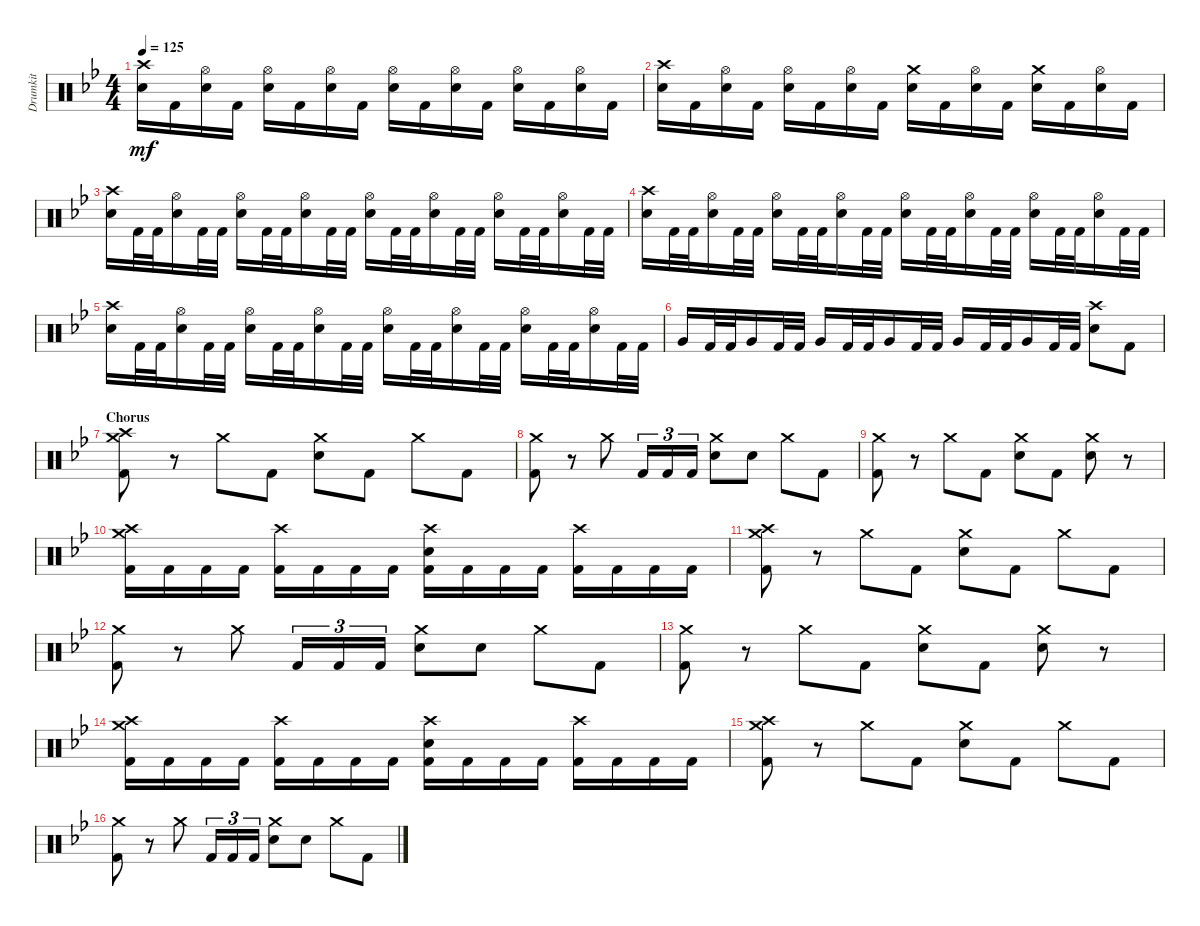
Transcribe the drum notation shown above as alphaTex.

\track ("Drumkit" "Drumkit") {instrument percussion}
\staff {score}
\articulation defaults
\ts (4 4)
\tempo 125
\clef neutral
\ks bb
("Crash high (hit)" "Snare (hit) 2").16{dy mf} "Kick (hit) 2".16 ("Hi-Hat (open)" "Snare (hit) 2").16 "Kick (hit) 2".16 ("Hi-Hat (open)" "Snare (hit) 2").16 "Kick (hit) 2".16 ("Hi-Hat (open)" "Snare (hit) 2").16 "Kick (hit) 2".16 ("Hi-Hat (open)" "Snare (hit) 2").16 "Kick (hit) 2".16 ("Hi-Hat (open)" "Snare (hit) 2").16 "Kick (hit) 2".16 ("Hi-Hat (open)" "Snare (hit) 2").16 "Kick (hit) 2".16 ("Hi-Hat (open)" "Snare (hit) 2").16 "Kick (hit) 2".16 |
("Crash high (hit)" "Snare (hit) 2").16 "Kick (hit) 2".16 ("Hi-Hat (open)" "Snare (hit) 2").16 "Kick (hit) 2".16 ("Hi-Hat (open)" "Snare (hit) 2").16 "Kick (hit) 2".16 ("Hi-Hat (open)" "Snare (hit) 2").16 "Kick (hit) 2".16 ("Crash medium (hit)" "Snare (hit) 2").16 "Kick (hit) 2".16 ("Hi-Hat (open)" "Snare (hit) 2").16 "Kick (hit) 2".16 ("Crash medium (hit)" "Snare (hit) 2").16 "Kick (hit) 2".16 ("Hi-Hat (open)" "Snare (hit) 2").16 "Kick (hit) 2".16 |
("Crash high (hit)" "Snare (hit) 2").16 "Kick (hit) 2".32 "Kick (hit) 2".32 ("Hi-Hat (open)" "Snare (hit) 2").16 "Kick (hit) 2".32 "Kick (hit) 2".32 ("Hi-Hat (open)" "Snare (hit) 2").16 "Kick (hit) 2".32 "Kick (hit) 2".32 ("Hi-Hat (open)" "Snare (hit) 2").16 "Kick (hit) 2".32 "Kick (hit) 2".32 ("Hi-Hat (open)" "Snare (hit) 2").16 "Kick (hit) 2".32 "Kick (hit) 2".32 ("Hi-Hat (open)" "Snare (hit) 2").16 "Kick (hit) 2".32 "Kick (hit) 2".32 ("Hi-Hat (open)" "Snare (hit) 2").16 "Kick (hit) 2".32 "Kick (hit) 2".32 ("Hi-Hat (open)" "Snare (hit) 2").16 "Kick (hit) 2".32 "Kick (hit) 2".32 |
("Crash high (hit)" "Snare (hit) 2").16 "Kick (hit) 2".32 "Kick (hit) 2".32 ("Hi-Hat (open)" "Snare (hit) 2").16 "Kick (hit) 2".32 "Kick (hit) 2".32 ("Hi-Hat (open)" "Snare (hit) 2").16 "Kick (hit) 2".32 "Kick (hit) 2".32 ("Hi-Hat (open)" "Snare (hit) 2").16 "Kick (hit) 2".32 "Kick (hit) 2".32 ("Hi-Hat (open)" "Snare (hit) 2").16 "Kick (hit) 2".32 "Kick (hit) 2".32 ("Hi-Hat (open)" "Snare (hit) 2").16 "Kick (hit) 2".32 "Kick (hit) 2".32 ("Hi-Hat (open)" "Snare (hit) 2").16 "Kick (hit) 2".32 "Kick (hit) 2".32 ("Hi-Hat (open)" "Snare (hit) 2").16 "Kick (hit) 2".32 "Kick (hit) 2".32 |
("Crash high (hit)" "Snare (hit) 2").16 "Kick (hit) 2".32 "Kick (hit) 2".32 ("Hi-Hat (open)" "Snare (hit) 2").16 "Kick (hit) 2".32 "Kick (hit) 2".32 ("Hi-Hat (open)" "Snare (hit) 2").16 "Kick (hit) 2".32 "Kick (hit) 2".32 ("Hi-Hat (open)" "Snare (hit) 2").16 "Kick (hit) 2".32 "Kick (hit) 2".32 ("Hi-Hat (open)" "Snare (hit) 2").16 "Kick (hit) 2".32 "Kick (hit) 2".32 ("Hi-Hat (open)" "Snare (hit) 2").16 "Kick (hit) 2".32 "Kick (hit) 2".32 ("Hi-Hat (open)" "Snare (hit) 2").16 "Kick (hit) 2".32 "Kick (hit) 2".32 ("Hi-Hat (open)" "Snare (hit) 2").16 "Kick (hit) 2".32 "Kick (hit) 2".32 |
"Very Low Tom (hit)".16 "Kick (hit) 2".32 "Kick (hit) 2".32 "Very Low Tom (hit)".16 "Kick (hit) 2".32 "Kick (hit) 2".32 "Very Low Tom (hit)".16 "Kick (hit) 2".32 "Kick (hit) 2".32 "Very Low Tom (hit)".16 "Kick (hit) 2".32 "Kick (hit) 2".32 "Very Low Tom (hit)".16 "Kick (hit) 2".32 "Kick (hit) 2".32 "Very Low Tom (hit)".16 "Kick (hit) 2".32 "Kick (hit) 2".32 ("Crash high (hit)" "Snare (hit) 2").8 "Kick (hit) 2".8 |
\section ("" "Chorus")
("Crash high (hit)" "Crash medium (hit)" "Kick (hit) 2").8 r.8 "Crash medium (hit)".8 "Kick (hit) 2".8 ("Crash medium (hit)" "Snare (hit) 2").8 "Kick (hit) 2".8 "Crash medium (hit)".8 "Kick (hit) 2".8 |
("Crash medium (hit)" "Kick (hit) 2").8 r.8 "Crash medium (hit)".8 "Kick (hit) 2".16{tu (3 2)} "Kick (hit) 2".16{tu (3 2)} "Kick (hit) 2".16{tu (3 2)} ("Crash medium (hit)" "Snare (hit) 2").8 "Snare (hit) 2".8 "Crash medium (hit)".8 "Kick (hit) 2".8 |
("Crash medium (hit)" "Kick (hit) 2").8 r.8 "Crash medium (hit)".8 "Kick (hit) 2".8 ("Crash medium (hit)" "Snare (hit) 2").8 "Kick (hit) 2".8 ("Crash medium (hit)" "Snare (hit) 2").8 r.8 |
("Crash high (hit)" "Crash medium (hit)" "Kick (hit) 2").16 "Kick (hit) 2".16 "Kick (hit) 2".16 "Kick (hit) 2".16 ("Crash high (hit)" "Kick (hit) 2").16 "Kick (hit) 2".16 "Kick (hit) 2".16 "Kick (hit) 2".16 ("Crash high (hit)" "Snare (hit) 2" "Kick (hit) 2").16 "Kick (hit) 2".16 "Kick (hit) 2".16 "Kick (hit) 2".16 ("Crash high (hit)" "Kick (hit) 2").16 "Kick (hit) 2".16 "Kick (hit) 2".16 "Kick (hit) 2".16 |
("Crash high (hit)" "Crash medium (hit)" "Kick (hit) 2").8 r.8 "Crash medium (hit)".8 "Kick (hit) 2".8 ("Crash medium (hit)" "Snare (hit) 2").8 "Kick (hit) 2".8 "Crash medium (hit)".8 "Kick (hit) 2".8 |
("Crash medium (hit)" "Kick (hit) 2").8 r.8 "Crash medium (hit)".8 "Kick (hit) 2".16{tu (3 2)} "Kick (hit) 2".16{tu (3 2)} "Kick (hit) 2".16{tu (3 2)} ("Crash medium (hit)" "Snare (hit) 2").8 "Snare (hit) 2".8 "Crash medium (hit)".8 "Kick (hit) 2".8 |
("Crash medium (hit)" "Kick (hit) 2").8 r.8 "Crash medium (hit)".8 "Kick (hit) 2".8 ("Crash medium (hit)" "Snare (hit) 2").8 "Kick (hit) 2".8 ("Crash medium (hit)" "Snare (hit) 2").8 r.8 |
("Crash high (hit)" "Crash medium (hit)" "Kick (hit) 2").16 "Kick (hit) 2".16 "Kick (hit) 2".16 "Kick (hit) 2".16 ("Crash high (hit)" "Kick (hit) 2").16 "Kick (hit) 2".16 "Kick (hit) 2".16 "Kick (hit) 2".16 ("Crash high (hit)" "Snare (hit) 2" "Kick (hit) 2").16 "Kick (hit) 2".16 "Kick (hit) 2".16 "Kick (hit) 2".16 ("Crash high (hit)" "Kick (hit) 2").16 "Kick (hit) 2".16 "Kick (hit) 2".16 "Kick (hit) 2".16 |
("Crash high (hit)" "Crash medium (hit)" "Kick (hit) 2").8 r.8 "Crash medium (hit)".8 "Kick (hit) 2".8 ("Crash medium (hit)" "Snare (hit) 2").8 "Kick (hit) 2".8 "Crash medium (hit)".8 "Kick (hit) 2".8 |
("Crash medium (hit)" "Kick (hit) 2").8 r.8 "Crash medium (hit)".8 "Kick (hit) 2".16{tu (3 2)} "Kick (hit) 2".16{tu (3 2)} "Kick (hit) 2".16{tu (3 2)} ("Crash medium (hit)" "Snare (hit) 2").8 "Snare (hit) 2".8 "Crash medium (hit)".8 "Kick (hit) 2".8
